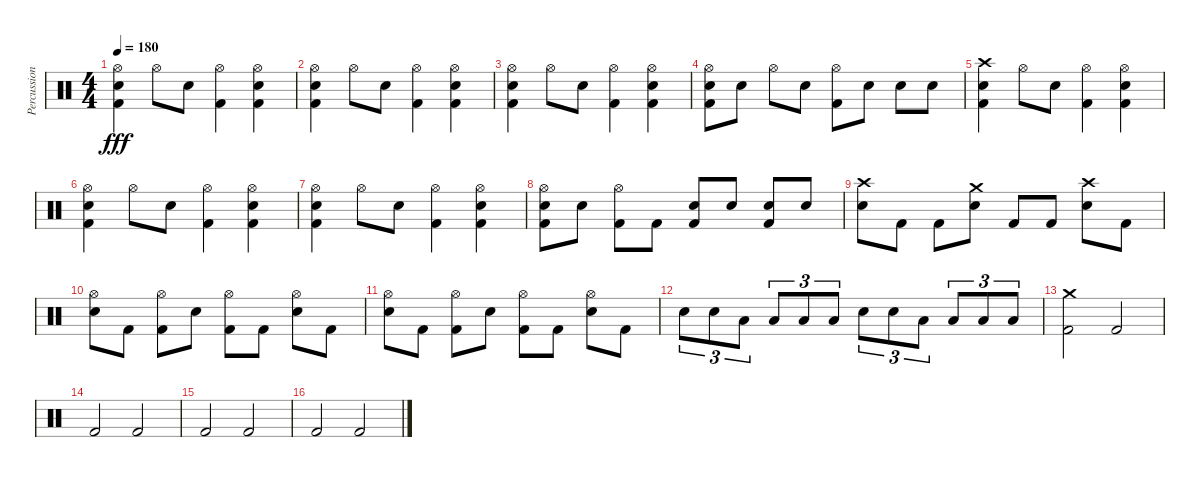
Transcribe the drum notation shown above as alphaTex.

\track ("Percussion" "Percussion") {instrument percussion}
\staff {score}
\articulation defaults
\ts (4 4)
\tempo 180
\clef neutral
\ks c
("Hi-Hat (open)" "Kick (hit) 2" "Electric Snare (hit)").4{dy fff} "Hi-Hat (open)".8 "Electric Snare (hit)".8 ("Hi-Hat (open)" "Kick (hit) 2").4 ("Hi-Hat (open)" "Kick (hit) 2" "Electric Snare (hit)").4 |
("Hi-Hat (open)" "Kick (hit) 2" "Electric Snare (hit)").4 "Hi-Hat (open)".8 "Electric Snare (hit)".8 ("Hi-Hat (open)" "Kick (hit) 2").4 ("Hi-Hat (open)" "Kick (hit) 2" "Electric Snare (hit)").4 |
("Hi-Hat (open)" "Kick (hit) 2" "Electric Snare (hit)").4 "Hi-Hat (open)".8 "Electric Snare (hit)".8 ("Hi-Hat (open)" "Kick (hit) 2").4 ("Hi-Hat (open)" "Kick (hit) 2" "Electric Snare (hit)").4 |
("Hi-Hat (open)" "Kick (hit) 2" "Electric Snare (hit)").8 "Electric Snare (hit)".8 "Hi-Hat (open)".8 "Electric Snare (hit)".8 ("Hi-Hat (open)" "Kick (hit) 2").8 "Electric Snare (hit)".8 "Electric Snare (hit)".8 "Electric Snare (hit)".8 |
("Crash high (hit)" "Kick (hit) 2" "Electric Snare (hit)").4 "Hi-Hat (open)".8 "Electric Snare (hit)".8 ("Hi-Hat (open)" "Kick (hit) 2").4 ("Hi-Hat (open)" "Kick (hit) 2" "Electric Snare (hit)").4 |
("Hi-Hat (open)" "Kick (hit) 2" "Electric Snare (hit)").4 "Hi-Hat (open)".8 "Electric Snare (hit)".8 ("Hi-Hat (open)" "Kick (hit) 2").4 ("Hi-Hat (open)" "Kick (hit) 2" "Electric Snare (hit)").4 |
("Hi-Hat (open)" "Kick (hit) 2" "Electric Snare (hit)").4 "Hi-Hat (open)".8 "Electric Snare (hit)".8 ("Hi-Hat (open)" "Kick (hit) 2").4 ("Hi-Hat (open)" "Kick (hit) 2" "Electric Snare (hit)").4 |
("Hi-Hat (open)" "Kick (hit) 2" "Electric Snare (hit)").8 "Electric Snare (hit)".8 ("Hi-Hat (open)" "Kick (hit) 2").8 "Kick (hit) 2".8 ("Kick (hit) 2" "Electric Snare (hit)").8 "Electric Snare (hit)".8 ("Kick (hit) 2" "Electric Snare (hit)").8 "Electric Snare (hit)".8 |
("Crash high (hit)" "Electric Snare (hit)").8 "Kick (hit) 2".8 "Kick (hit) 2".8 ("Crash medium (hit)" "Electric Snare (hit)").8 "Kick (hit) 2".8 "Kick (hit) 2".8 ("Crash high (hit)" "Electric Snare (hit)").8 "Kick (hit) 2".8 |
("Hi-Hat (open)" "Electric Snare (hit)").8 "Kick (hit) 2".8 ("Hi-Hat (open)" "Kick (hit) 2").8 "Electric Snare (hit)".8 ("Hi-Hat (open)" "Kick (hit) 2").8 "Kick (hit) 2".8 ("Hi-Hat (open)" "Electric Snare (hit)").8 "Kick (hit) 2".8 |
("Hi-Hat (open)" "Electric Snare (hit)").8 "Kick (hit) 2".8 ("Hi-Hat (open)" "Kick (hit) 2").8 "Electric Snare (hit)".8 ("Hi-Hat (open)" "Kick (hit) 2").8 "Kick (hit) 2".8 ("Hi-Hat (open)" "Electric Snare (hit)").8 "Kick (hit) 2".8 |
"Electric Snare (hit)".8{tu (3 2)} "Electric Snare (hit)".8{tu (3 2)} "Low Tom (hit)".8{tu (3 2)} "Low Tom (hit)".8{tu (3 2)} "Low Floor Tom (hit)".8{tu (3 2)} "Low Floor Tom (hit)".8{tu (3 2)} "Electric Snare (hit)".8{tu (3 2)} "Electric Snare (hit)".8{tu (3 2)} "Low Tom (hit)".8{tu (3 2)} "Low Tom (hit)".8{tu (3 2)} "Low Floor Tom (hit)".8{tu (3 2)} "Low Floor Tom (hit)".8{tu (3 2)} |
("Crash medium (hit)" "Kick (hit) 2").2 "Kick (hit) 2".2 |
"Kick (hit) 2".2 "Kick (hit) 2".2 |
"Kick (hit) 2".2 "Kick (hit) 2".2 |
"Kick (hit) 2".2 "Kick (hit) 2".2
